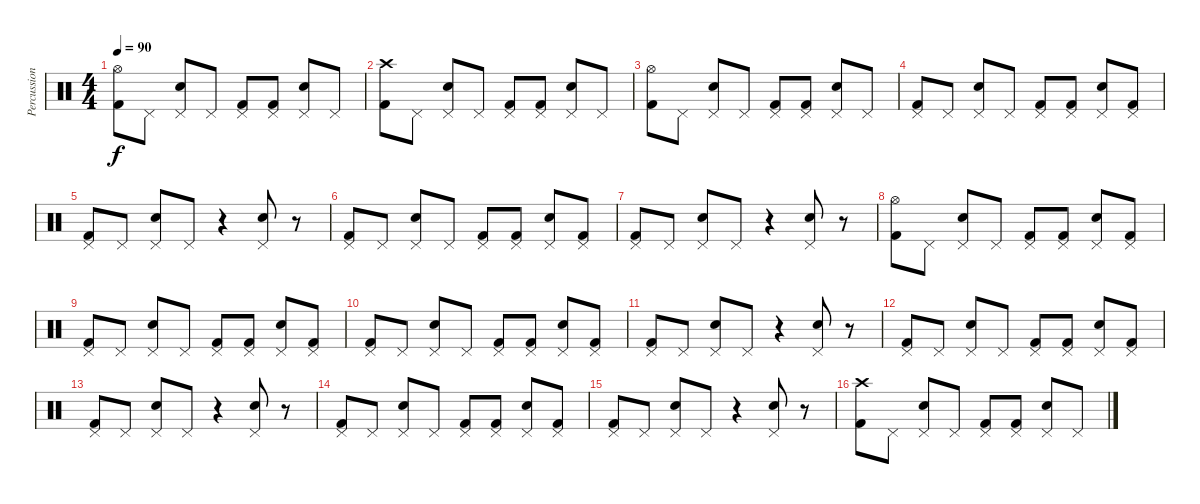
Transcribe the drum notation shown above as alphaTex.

\track ("Percussion" "Percussion") {instrument percussion}
\staff {score}
\articulation defaults
\ts (4 4)
\tempo 90
\clef neutral
\ks c
("Hi-Hat (open)" "Kick (hit) 2").8{dy f} "Pedal Hi-Hat (hit)".8 ("Pedal Hi-Hat (hit)" "Electric Snare (hit)").8 "Pedal Hi-Hat (hit)".8 ("Pedal Hi-Hat (hit)" "Kick (hit) 2").8 ("Pedal Hi-Hat (hit)" "Kick (hit) 2").8 ("Pedal Hi-Hat (hit)" "Electric Snare (hit)").8 "Pedal Hi-Hat (hit)".8 |
("Crash high (hit)" "Kick (hit) 2").8 "Pedal Hi-Hat (hit)".8 ("Pedal Hi-Hat (hit)" "Electric Snare (hit)").8 "Pedal Hi-Hat (hit)".8 ("Pedal Hi-Hat (hit)" "Kick (hit) 2").8 ("Pedal Hi-Hat (hit)" "Kick (hit) 2").8 ("Pedal Hi-Hat (hit)" "Electric Snare (hit)").8 "Pedal Hi-Hat (hit)".8 |
("Hi-Hat (open)" "Kick (hit) 2").8 "Pedal Hi-Hat (hit)".8 ("Pedal Hi-Hat (hit)" "Electric Snare (hit)").8 "Pedal Hi-Hat (hit)".8 ("Pedal Hi-Hat (hit)" "Kick (hit) 2").8 ("Pedal Hi-Hat (hit)" "Kick (hit) 2").8 ("Pedal Hi-Hat (hit)" "Electric Snare (hit)").8 "Pedal Hi-Hat (hit)".8 |
("Pedal Hi-Hat (hit)" "Kick (hit) 2").8 "Pedal Hi-Hat (hit)".8 ("Pedal Hi-Hat (hit)" "Electric Snare (hit)").8 "Pedal Hi-Hat (hit)".8 ("Pedal Hi-Hat (hit)" "Kick (hit) 2").8 ("Pedal Hi-Hat (hit)" "Kick (hit) 2").8 ("Pedal Hi-Hat (hit)" "Electric Snare (hit)").8 ("Pedal Hi-Hat (hit)" "Kick (hit) 2").8 |
("Pedal Hi-Hat (hit)" "Kick (hit) 2").8 "Pedal Hi-Hat (hit)".8 ("Pedal Hi-Hat (hit)" "Electric Snare (hit)").8 "Pedal Hi-Hat (hit)".8 r.4 ("Pedal Hi-Hat (hit)" "Electric Snare (hit)").8 r.8 |
("Pedal Hi-Hat (hit)" "Kick (hit) 2").8 "Pedal Hi-Hat (hit)".8 ("Pedal Hi-Hat (hit)" "Electric Snare (hit)").8 "Pedal Hi-Hat (hit)".8 ("Pedal Hi-Hat (hit)" "Kick (hit) 2").8 ("Pedal Hi-Hat (hit)" "Kick (hit) 2").8 ("Pedal Hi-Hat (hit)" "Electric Snare (hit)").8 ("Pedal Hi-Hat (hit)" "Kick (hit) 2").8 |
("Pedal Hi-Hat (hit)" "Kick (hit) 2").8 "Pedal Hi-Hat (hit)".8 ("Pedal Hi-Hat (hit)" "Electric Snare (hit)").8 "Pedal Hi-Hat (hit)".8 r.4 ("Pedal Hi-Hat (hit)" "Electric Snare (hit)").8 r.8 |
("Hi-Hat (open)" "Kick (hit) 2").8 "Pedal Hi-Hat (hit)".8 ("Pedal Hi-Hat (hit)" "Electric Snare (hit)").8 "Pedal Hi-Hat (hit)".8 ("Pedal Hi-Hat (hit)" "Kick (hit) 2").8 ("Pedal Hi-Hat (hit)" "Kick (hit) 2").8 ("Pedal Hi-Hat (hit)" "Electric Snare (hit)").8 ("Pedal Hi-Hat (hit)" "Kick (hit) 2").8 |
("Pedal Hi-Hat (hit)" "Kick (hit) 2").8 "Pedal Hi-Hat (hit)".8 ("Pedal Hi-Hat (hit)" "Electric Snare (hit)").8 "Pedal Hi-Hat (hit)".8 ("Pedal Hi-Hat (hit)" "Kick (hit) 2").8 ("Pedal Hi-Hat (hit)" "Kick (hit) 2").8 ("Pedal Hi-Hat (hit)" "Electric Snare (hit)").8 ("Pedal Hi-Hat (hit)" "Kick (hit) 2").8 |
("Pedal Hi-Hat (hit)" "Kick (hit) 2").8 "Pedal Hi-Hat (hit)".8 ("Pedal Hi-Hat (hit)" "Electric Snare (hit)").8 "Pedal Hi-Hat (hit)".8 ("Pedal Hi-Hat (hit)" "Kick (hit) 2").8 ("Pedal Hi-Hat (hit)" "Kick (hit) 2").8 ("Pedal Hi-Hat (hit)" "Electric Snare (hit)").8 ("Pedal Hi-Hat (hit)" "Kick (hit) 2").8 |
("Pedal Hi-Hat (hit)" "Kick (hit) 2").8 "Pedal Hi-Hat (hit)".8 ("Pedal Hi-Hat (hit)" "Electric Snare (hit)").8 "Pedal Hi-Hat (hit)".8 r.4 ("Pedal Hi-Hat (hit)" "Electric Snare (hit)").8 r.8 |
("Pedal Hi-Hat (hit)" "Kick (hit) 2").8 "Pedal Hi-Hat (hit)".8 ("Pedal Hi-Hat (hit)" "Electric Snare (hit)").8 "Pedal Hi-Hat (hit)".8 ("Pedal Hi-Hat (hit)" "Kick (hit) 2").8 ("Pedal Hi-Hat (hit)" "Kick (hit) 2").8 ("Pedal Hi-Hat (hit)" "Electric Snare (hit)").8 ("Pedal Hi-Hat (hit)" "Kick (hit) 2").8 |
("Pedal Hi-Hat (hit)" "Kick (hit) 2").8 "Pedal Hi-Hat (hit)".8 ("Pedal Hi-Hat (hit)" "Electric Snare (hit)").8 "Pedal Hi-Hat (hit)".8 r.4 ("Pedal Hi-Hat (hit)" "Electric Snare (hit)").8 r.8 |
("Pedal Hi-Hat (hit)" "Kick (hit) 2").8 "Pedal Hi-Hat (hit)".8 ("Pedal Hi-Hat (hit)" "Electric Snare (hit)").8 "Pedal Hi-Hat (hit)".8 ("Pedal Hi-Hat (hit)" "Kick (hit) 2").8 ("Pedal Hi-Hat (hit)" "Kick (hit) 2").8 ("Pedal Hi-Hat (hit)" "Electric Snare (hit)").8 ("Pedal Hi-Hat (hit)" "Kick (hit) 2").8 |
("Pedal Hi-Hat (hit)" "Kick (hit) 2").8 "Pedal Hi-Hat (hit)".8 ("Pedal Hi-Hat (hit)" "Electric Snare (hit)").8 "Pedal Hi-Hat (hit)".8 r.4 ("Pedal Hi-Hat (hit)" "Electric Snare (hit)").8 r.8 |
("Crash high (hit)" "Kick (hit) 2").8 "Pedal Hi-Hat (hit)".8 ("Pedal Hi-Hat (hit)" "Electric Snare (hit)").8 "Pedal Hi-Hat (hit)".8 ("Pedal Hi-Hat (hit)" "Kick (hit) 2").8 ("Pedal Hi-Hat (hit)" "Kick (hit) 2").8 ("Pedal Hi-Hat (hit)" "Electric Snare (hit)").8 "Pedal Hi-Hat (hit)".8
